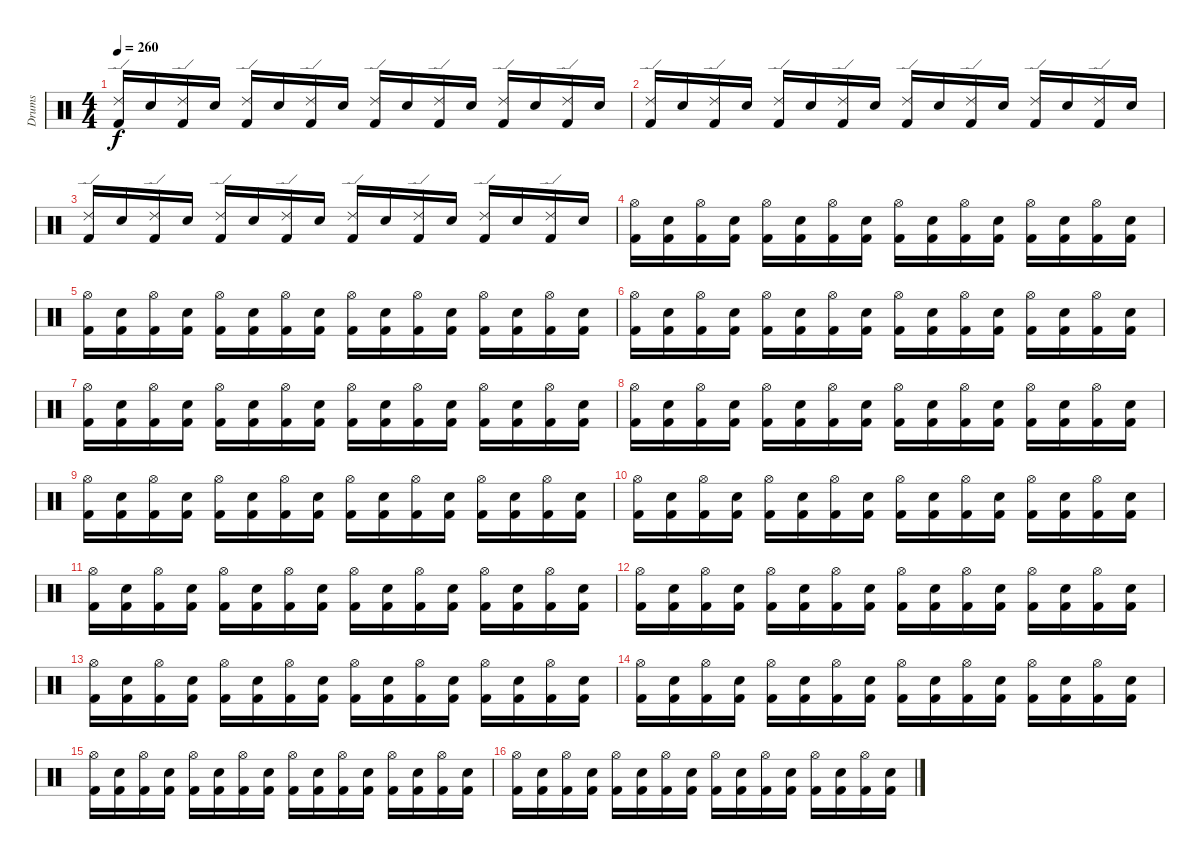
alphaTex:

\track ("Drums" "Drums") {instrument percussion}
\staff {score}
\articulation defaults
\ts (4 4)
\tempo 260
\clef neutral
\ks c
("Ride (edge) 2" "Kick (hit) 2").16{dy f} "Snare (hit) 2".16 ("Ride (edge) 2" "Kick (hit) 2").16 "Snare (hit) 2".16 ("Ride (edge) 2" "Kick (hit) 2").16 "Snare (hit) 2".16 ("Ride (edge) 2" "Kick (hit) 2").16 "Snare (hit) 2".16 ("Ride (edge) 2" "Kick (hit) 2").16 "Snare (hit) 2".16 ("Ride (edge) 2" "Kick (hit) 2").16 "Snare (hit) 2".16 ("Ride (edge) 2" "Kick (hit) 2").16 "Snare (hit) 2".16 ("Ride (edge) 2" "Kick (hit) 2").16 "Snare (hit) 2".16 |
("Ride (edge) 2" "Kick (hit) 2").16 "Snare (hit) 2".16 ("Ride (edge) 2" "Kick (hit) 2").16 "Snare (hit) 2".16 ("Ride (edge) 2" "Kick (hit) 2").16 "Snare (hit) 2".16 ("Ride (edge) 2" "Kick (hit) 2").16 "Snare (hit) 2".16 ("Ride (edge) 2" "Kick (hit) 2").16 "Snare (hit) 2".16 ("Ride (edge) 2" "Kick (hit) 2").16 "Snare (hit) 2".16 ("Ride (edge) 2" "Kick (hit) 2").16 "Snare (hit) 2".16 ("Ride (edge) 2" "Kick (hit) 2").16 "Snare (hit) 2".16 |
("Ride (edge) 2" "Kick (hit) 2").16 "Snare (hit) 2".16 ("Ride (edge) 2" "Kick (hit) 2").16 "Snare (hit) 2".16 ("Ride (edge) 2" "Kick (hit) 2").16 "Snare (hit) 2".16 ("Ride (edge) 2" "Kick (hit) 2").16 "Snare (hit) 2".16 ("Ride (edge) 2" "Kick (hit) 2").16 "Snare (hit) 2".16 ("Ride (edge) 2" "Kick (hit) 2").16 "Snare (hit) 2".16 ("Ride (edge) 2" "Kick (hit) 2").16 "Snare (hit) 2".16 ("Ride (edge) 2" "Kick (hit) 2").16 "Snare (hit) 2".16 |
("Hi-Hat (open)" "Kick (hit) 2").16 ("Snare (hit) 2" "Kick (hit) 2").16 ("Hi-Hat (open)" "Kick (hit) 2").16 ("Snare (hit) 2" "Kick (hit) 2").16 ("Hi-Hat (open)" "Kick (hit) 2").16 ("Snare (hit) 2" "Kick (hit) 2").16 ("Hi-Hat (open)" "Kick (hit) 2").16 ("Snare (hit) 2" "Kick (hit) 2").16 ("Hi-Hat (open)" "Kick (hit) 2").16 ("Snare (hit) 2" "Kick (hit) 2").16 ("Hi-Hat (open)" "Kick (hit) 2").16 ("Snare (hit) 2" "Kick (hit) 2").16 ("Hi-Hat (open)" "Kick (hit) 2").16 ("Snare (hit) 2" "Kick (hit) 2").16 ("Hi-Hat (open)" "Kick (hit) 2").16 ("Snare (hit) 2" "Kick (hit) 2").16 |
("Hi-Hat (open)" "Kick (hit) 2").16 ("Snare (hit) 2" "Kick (hit) 2").16 ("Hi-Hat (open)" "Kick (hit) 2").16 ("Snare (hit) 2" "Kick (hit) 2").16 ("Hi-Hat (open)" "Kick (hit) 2").16 ("Snare (hit) 2" "Kick (hit) 2").16 ("Hi-Hat (open)" "Kick (hit) 2").16 ("Snare (hit) 2" "Kick (hit) 2").16 ("Hi-Hat (open)" "Kick (hit) 2").16 ("Snare (hit) 2" "Kick (hit) 2").16 ("Hi-Hat (open)" "Kick (hit) 2").16 ("Snare (hit) 2" "Kick (hit) 2").16 ("Hi-Hat (open)" "Kick (hit) 2").16 ("Snare (hit) 2" "Kick (hit) 2").16 ("Hi-Hat (open)" "Kick (hit) 2").16 ("Snare (hit) 2" "Kick (hit) 2").16 |
("Hi-Hat (open)" "Kick (hit) 2").16 ("Snare (hit) 2" "Kick (hit) 2").16 ("Hi-Hat (open)" "Kick (hit) 2").16 ("Snare (hit) 2" "Kick (hit) 2").16 ("Hi-Hat (open)" "Kick (hit) 2").16 ("Snare (hit) 2" "Kick (hit) 2").16 ("Hi-Hat (open)" "Kick (hit) 2").16 ("Snare (hit) 2" "Kick (hit) 2").16 ("Hi-Hat (open)" "Kick (hit) 2").16 ("Snare (hit) 2" "Kick (hit) 2").16 ("Hi-Hat (open)" "Kick (hit) 2").16 ("Snare (hit) 2" "Kick (hit) 2").16 ("Hi-Hat (open)" "Kick (hit) 2").16 ("Snare (hit) 2" "Kick (hit) 2").16 ("Hi-Hat (open)" "Kick (hit) 2").16 ("Snare (hit) 2" "Kick (hit) 2").16 |
("Hi-Hat (open)" "Kick (hit) 2").16 ("Snare (hit) 2" "Kick (hit) 2").16 ("Hi-Hat (open)" "Kick (hit) 2").16 ("Snare (hit) 2" "Kick (hit) 2").16 ("Hi-Hat (open)" "Kick (hit) 2").16 ("Snare (hit) 2" "Kick (hit) 2").16 ("Hi-Hat (open)" "Kick (hit) 2").16 ("Snare (hit) 2" "Kick (hit) 2").16 ("Hi-Hat (open)" "Kick (hit) 2").16 ("Snare (hit) 2" "Kick (hit) 2").16 ("Hi-Hat (open)" "Kick (hit) 2").16 ("Snare (hit) 2" "Kick (hit) 2").16 ("Hi-Hat (open)" "Kick (hit) 2").16 ("Snare (hit) 2" "Kick (hit) 2").16 ("Hi-Hat (open)" "Kick (hit) 2").16 ("Snare (hit) 2" "Kick (hit) 2").16 |
("Hi-Hat (open)" "Kick (hit) 2").16 ("Snare (hit) 2" "Kick (hit) 2").16 ("Hi-Hat (open)" "Kick (hit) 2").16 ("Snare (hit) 2" "Kick (hit) 2").16 ("Hi-Hat (open)" "Kick (hit) 2").16 ("Snare (hit) 2" "Kick (hit) 2").16 ("Hi-Hat (open)" "Kick (hit) 2").16 ("Snare (hit) 2" "Kick (hit) 2").16 ("Hi-Hat (open)" "Kick (hit) 2").16 ("Snare (hit) 2" "Kick (hit) 2").16 ("Hi-Hat (open)" "Kick (hit) 2").16 ("Snare (hit) 2" "Kick (hit) 2").16 ("Hi-Hat (open)" "Kick (hit) 2").16 ("Snare (hit) 2" "Kick (hit) 2").16 ("Hi-Hat (open)" "Kick (hit) 2").16 ("Snare (hit) 2" "Kick (hit) 2").16 |
("Hi-Hat (open)" "Kick (hit) 2").16 ("Snare (hit) 2" "Kick (hit) 2").16 ("Hi-Hat (open)" "Kick (hit) 2").16 ("Snare (hit) 2" "Kick (hit) 2").16 ("Hi-Hat (open)" "Kick (hit) 2").16 ("Snare (hit) 2" "Kick (hit) 2").16 ("Hi-Hat (open)" "Kick (hit) 2").16 ("Snare (hit) 2" "Kick (hit) 2").16 ("Hi-Hat (open)" "Kick (hit) 2").16 ("Snare (hit) 2" "Kick (hit) 2").16 ("Hi-Hat (open)" "Kick (hit) 2").16 ("Snare (hit) 2" "Kick (hit) 2").16 ("Hi-Hat (open)" "Kick (hit) 2").16 ("Snare (hit) 2" "Kick (hit) 2").16 ("Hi-Hat (open)" "Kick (hit) 2").16 ("Snare (hit) 2" "Kick (hit) 2").16 |
("Hi-Hat (open)" "Kick (hit) 2").16 ("Snare (hit) 2" "Kick (hit) 2").16 ("Hi-Hat (open)" "Kick (hit) 2").16 ("Snare (hit) 2" "Kick (hit) 2").16 ("Hi-Hat (open)" "Kick (hit) 2").16 ("Snare (hit) 2" "Kick (hit) 2").16 ("Hi-Hat (open)" "Kick (hit) 2").16 ("Snare (hit) 2" "Kick (hit) 2").16 ("Hi-Hat (open)" "Kick (hit) 2").16 ("Snare (hit) 2" "Kick (hit) 2").16 ("Hi-Hat (open)" "Kick (hit) 2").16 ("Snare (hit) 2" "Kick (hit) 2").16 ("Hi-Hat (open)" "Kick (hit) 2").16 ("Snare (hit) 2" "Kick (hit) 2").16 ("Hi-Hat (open)" "Kick (hit) 2").16 ("Snare (hit) 2" "Kick (hit) 2").16 |
("Hi-Hat (open)" "Kick (hit) 2").16 ("Snare (hit) 2" "Kick (hit) 2").16 ("Hi-Hat (open)" "Kick (hit) 2").16 ("Snare (hit) 2" "Kick (hit) 2").16 ("Hi-Hat (open)" "Kick (hit) 2").16 ("Snare (hit) 2" "Kick (hit) 2").16 ("Hi-Hat (open)" "Kick (hit) 2").16 ("Snare (hit) 2" "Kick (hit) 2").16 ("Hi-Hat (open)" "Kick (hit) 2").16 ("Snare (hit) 2" "Kick (hit) 2").16 ("Hi-Hat (open)" "Kick (hit) 2").16 ("Snare (hit) 2" "Kick (hit) 2").16 ("Hi-Hat (open)" "Kick (hit) 2").16 ("Snare (hit) 2" "Kick (hit) 2").16 ("Hi-Hat (open)" "Kick (hit) 2").16 ("Snare (hit) 2" "Kick (hit) 2").16 |
("Hi-Hat (open)" "Kick (hit) 2").16 ("Snare (hit) 2" "Kick (hit) 2").16 ("Hi-Hat (open)" "Kick (hit) 2").16 ("Snare (hit) 2" "Kick (hit) 2").16 ("Hi-Hat (open)" "Kick (hit) 2").16 ("Snare (hit) 2" "Kick (hit) 2").16 ("Hi-Hat (open)" "Kick (hit) 2").16 ("Snare (hit) 2" "Kick (hit) 2").16 ("Hi-Hat (open)" "Kick (hit) 2").16 ("Snare (hit) 2" "Kick (hit) 2").16 ("Hi-Hat (open)" "Kick (hit) 2").16 ("Snare (hit) 2" "Kick (hit) 2").16 ("Hi-Hat (open)" "Kick (hit) 2").16 ("Snare (hit) 2" "Kick (hit) 2").16 ("Hi-Hat (open)" "Kick (hit) 2").16 ("Snare (hit) 2" "Kick (hit) 2").16 |
("Hi-Hat (open)" "Kick (hit) 2").16 ("Snare (hit) 2" "Kick (hit) 2").16 ("Hi-Hat (open)" "Kick (hit) 2").16 ("Snare (hit) 2" "Kick (hit) 2").16 ("Hi-Hat (open)" "Kick (hit) 2").16 ("Snare (hit) 2" "Kick (hit) 2").16 ("Hi-Hat (open)" "Kick (hit) 2").16 ("Snare (hit) 2" "Kick (hit) 2").16 ("Hi-Hat (open)" "Kick (hit) 2").16 ("Snare (hit) 2" "Kick (hit) 2").16 ("Hi-Hat (open)" "Kick (hit) 2").16 ("Snare (hit) 2" "Kick (hit) 2").16 ("Hi-Hat (open)" "Kick (hit) 2").16 ("Snare (hit) 2" "Kick (hit) 2").16 ("Hi-Hat (open)" "Kick (hit) 2").16 ("Snare (hit) 2" "Kick (hit) 2").16 |
("Hi-Hat (open)" "Kick (hit) 2").16 ("Snare (hit) 2" "Kick (hit) 2").16 ("Hi-Hat (open)" "Kick (hit) 2").16 ("Snare (hit) 2" "Kick (hit) 2").16 ("Hi-Hat (open)" "Kick (hit) 2").16 ("Snare (hit) 2" "Kick (hit) 2").16 ("Hi-Hat (open)" "Kick (hit) 2").16 ("Snare (hit) 2" "Kick (hit) 2").16 ("Hi-Hat (open)" "Kick (hit) 2").16 ("Snare (hit) 2" "Kick (hit) 2").16 ("Hi-Hat (open)" "Kick (hit) 2").16 ("Snare (hit) 2" "Kick (hit) 2").16 ("Hi-Hat (open)" "Kick (hit) 2").16 ("Snare (hit) 2" "Kick (hit) 2").16 ("Hi-Hat (open)" "Kick (hit) 2").16 ("Snare (hit) 2" "Kick (hit) 2").16 |
("Hi-Hat (open)" "Kick (hit) 2").16 ("Snare (hit) 2" "Kick (hit) 2").16 ("Hi-Hat (open)" "Kick (hit) 2").16 ("Snare (hit) 2" "Kick (hit) 2").16 ("Hi-Hat (open)" "Kick (hit) 2").16 ("Snare (hit) 2" "Kick (hit) 2").16 ("Hi-Hat (open)" "Kick (hit) 2").16 ("Snare (hit) 2" "Kick (hit) 2").16 ("Hi-Hat (open)" "Kick (hit) 2").16 ("Snare (hit) 2" "Kick (hit) 2").16 ("Hi-Hat (open)" "Kick (hit) 2").16 ("Snare (hit) 2" "Kick (hit) 2").16 ("Hi-Hat (open)" "Kick (hit) 2").16 ("Snare (hit) 2" "Kick (hit) 2").16 ("Hi-Hat (open)" "Kick (hit) 2").16 ("Snare (hit) 2" "Kick (hit) 2").16 |
("Hi-Hat (open)" "Kick (hit) 2").16 ("Snare (hit) 2" "Kick (hit) 2").16 ("Hi-Hat (open)" "Kick (hit) 2").16 ("Snare (hit) 2" "Kick (hit) 2").16 ("Hi-Hat (open)" "Kick (hit) 2").16 ("Snare (hit) 2" "Kick (hit) 2").16 ("Hi-Hat (open)" "Kick (hit) 2").16 ("Snare (hit) 2" "Kick (hit) 2").16 ("Hi-Hat (open)" "Kick (hit) 2").16 ("Snare (hit) 2" "Kick (hit) 2").16 ("Hi-Hat (open)" "Kick (hit) 2").16 ("Snare (hit) 2" "Kick (hit) 2").16 ("Hi-Hat (open)" "Kick (hit) 2").16 ("Snare (hit) 2" "Kick (hit) 2").16 ("Hi-Hat (open)" "Kick (hit) 2").16 ("Snare (hit) 2" "Kick (hit) 2").16
